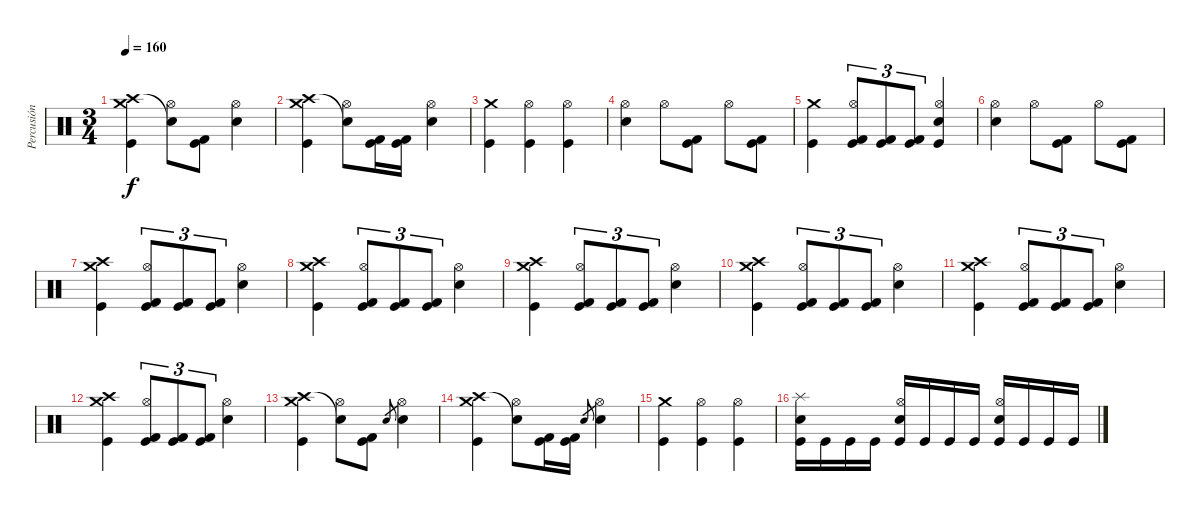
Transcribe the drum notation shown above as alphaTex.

\track ("Percusión" "Percusión") {instrument percussion}
\staff {score}
\articulation defaults
\ts (3 4)
\tempo 160
\clef neutral
\ks c
("Crash medium (hit)" "Crash high (hit)" "Kick (hit)").4{dy f} ("Hi-Hat (open)" "Snare (hit)"{t}).8 ("Kick (hit) 2" "Kick (hit)").8 ("Hi-Hat (open)" "Electric Snare (hit)").4 |
("Crash medium (hit)" "Crash high (hit)" "Kick (hit)").4 ("Hi-Hat (open)" "Snare (hit)"{t}).8 ("Kick (hit) 2" "Kick (hit)").16 ("Kick (hit) 2" "Kick (hit)").16 ("Hi-Hat (open)" "Electric Snare (hit)").4 |
("Crash medium (hit)" "Kick (hit)").4 ("Hi-Hat (open)" "Kick (hit)").4 ("Hi-Hat (open)" "Kick (hit)").4 |
("Hi-Hat (open)" "Electric Snare (hit)").4 "Hi-Hat (open)".8 ("Kick (hit) 2" "Kick (hit)").8 "Hi-Hat (open)".8 ("Kick (hit) 2" "Kick (hit)").8 |
("Crash medium (hit)" "Kick (hit)").4 ("Hi-Hat (open)" "Kick (hit) 2" "Kick (hit)").8{tu (3 2)} ("Kick (hit) 2" "Kick (hit)").8{tu (3 2)} ("Kick (hit) 2" "Kick (hit)").8{tu (3 2)} ("Hi-Hat (open)" "Electric Snare (hit)" "Kick (hit)").4 |
("Hi-Hat (open)" "Electric Snare (hit)").4 "Hi-Hat (open)".8 ("Kick (hit) 2" "Kick (hit)").8 "Hi-Hat (open)".8 ("Kick (hit) 2" "Kick (hit)").8 |
("Crash medium (hit)" "Crash high (hit)" "Kick (hit)").4 ("Hi-Hat (open)" "Kick (hit) 2" "Kick (hit)").8{tu (3 2)} ("Kick (hit) 2" "Kick (hit)").8{tu (3 2)} ("Kick (hit) 2" "Kick (hit)").8{tu (3 2)} ("Hi-Hat (open)" "Electric Snare (hit)").4 |
("Crash medium (hit)" "Crash high (hit)" "Kick (hit)").4 ("Hi-Hat (open)" "Kick (hit) 2" "Kick (hit)").8{tu (3 2)} ("Kick (hit) 2" "Kick (hit)").8{tu (3 2)} ("Kick (hit) 2" "Kick (hit)").8{tu (3 2)} ("Hi-Hat (open)" "Electric Snare (hit)").4 |
("Crash medium (hit)" "Crash high (hit)" "Kick (hit)").4 ("Hi-Hat (open)" "Kick (hit) 2" "Kick (hit)").8{tu (3 2)} ("Kick (hit) 2" "Kick (hit)").8{tu (3 2)} ("Kick (hit) 2" "Kick (hit)").8{tu (3 2)} ("Hi-Hat (open)" "Electric Snare (hit)").4 |
("Crash medium (hit)" "Crash high (hit)" "Kick (hit)").4 ("Hi-Hat (open)" "Kick (hit) 2" "Kick (hit)").8{tu (3 2)} ("Kick (hit) 2" "Kick (hit)").8{tu (3 2)} ("Kick (hit) 2" "Kick (hit)").8{tu (3 2)} ("Hi-Hat (open)" "Electric Snare (hit)").4 |
("Crash medium (hit)" "Crash high (hit)" "Kick (hit)").4 ("Hi-Hat (open)" "Kick (hit) 2" "Kick (hit)").8{tu (3 2)} ("Kick (hit) 2" "Kick (hit)").8{tu (3 2)} ("Kick (hit) 2" "Kick (hit)").8{tu (3 2)} ("Hi-Hat (open)" "Electric Snare (hit)").4 |
("Crash medium (hit)" "Crash high (hit)" "Kick (hit)").4 ("Hi-Hat (open)" "Kick (hit) 2" "Kick (hit)").8{tu (3 2)} ("Kick (hit) 2" "Kick (hit)").8{tu (3 2)} ("Kick (hit) 2" "Kick (hit)").8{tu (3 2)} ("Hi-Hat (open)" "Electric Snare (hit)").4 |
("Crash medium (hit)" "Crash high (hit)" "Kick (hit)").4 ("Hi-Hat (open)" "Snare (hit)"{t}).8 ("Kick (hit) 2" "Kick (hit)").8 "Electric Snare (hit)".8{gr} ("Hi-Hat (open)" "Electric Snare (hit)").4 |
("Crash medium (hit)" "Crash high (hit)" "Kick (hit)").4 ("Hi-Hat (open)" "Snare (hit)"{t}).8 ("Kick (hit) 2" "Kick (hit)").16 ("Kick (hit) 2" "Kick (hit)").16 "Electric Snare (hit)".8{gr} ("Hi-Hat (open)" "Electric Snare (hit)").4 |
("Crash medium (hit)" "Kick (hit)").4 ("Hi-Hat (open)" "Kick (hit)").4 ("Hi-Hat (open)" "Kick (hit)").4 |
("Splash (hit)" "Electric Snare (hit)" "Kick (hit)").16 "Kick (hit)".16 "Kick (hit)".16 "Kick (hit)".16 ("Hi-Hat (open)" "Electric Snare (hit)" "Kick (hit)").16 "Kick (hit)".16 "Kick (hit)".16 "Kick (hit)".16 ("Hi-Hat (open)" "Electric Snare (hit)" "Kick (hit)").16 "Kick (hit)".16 "Kick (hit)".16 "Kick (hit)".16
